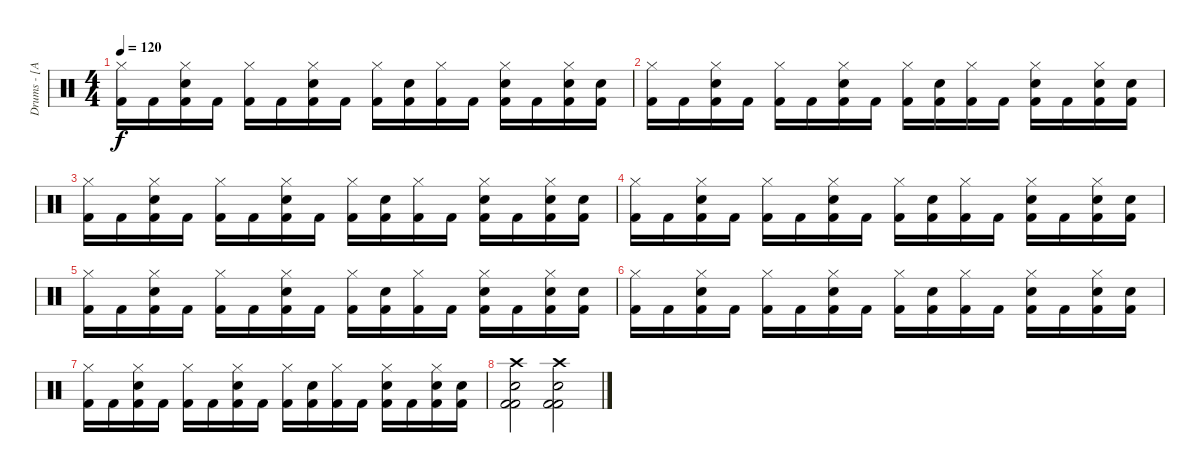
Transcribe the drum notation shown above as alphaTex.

\track ("Drums - [Anders]" "Drums - [A") {instrument percussion}
\staff {score}
\articulation defaults
\ts (4 4)
\tempo 120
\clef neutral
\ks c
("Hi-Hat (closed)" "Kick (hit) 2").16{dy f} "Kick (hit) 2".16 ("Hi-Hat (closed)" "Snare (hit) 2" "Kick (hit) 2").16 "Kick (hit) 2".16 ("Hi-Hat (closed)" "Kick (hit) 2").16 "Kick (hit) 2".16 ("Hi-Hat (closed)" "Snare (hit) 2" "Kick (hit) 2").16 "Kick (hit) 2".16 ("Hi-Hat (closed)" "Kick (hit) 2").16 ("Snare (hit) 2" "Kick (hit) 2").16 ("Hi-Hat (closed)" "Kick (hit) 2").16 "Kick (hit) 2".16 ("Hi-Hat (closed)" "Snare (hit) 2" "Kick (hit) 2").16 "Kick (hit) 2".16 ("Hi-Hat (closed)" "Snare (hit) 2" "Kick (hit) 2").16 ("Snare (hit) 2" "Kick (hit) 2").16 |
("Hi-Hat (closed)" "Kick (hit) 2").16 "Kick (hit) 2".16 ("Hi-Hat (closed)" "Snare (hit) 2" "Kick (hit) 2").16 "Kick (hit) 2".16 ("Hi-Hat (closed)" "Kick (hit) 2").16 "Kick (hit) 2".16 ("Hi-Hat (closed)" "Snare (hit) 2" "Kick (hit) 2").16 "Kick (hit) 2".16 ("Hi-Hat (closed)" "Kick (hit) 2").16 ("Snare (hit) 2" "Kick (hit) 2").16 ("Hi-Hat (closed)" "Kick (hit) 2").16 "Kick (hit) 2".16 ("Hi-Hat (closed)" "Snare (hit) 2" "Kick (hit) 2").16 "Kick (hit) 2".16 ("Hi-Hat (closed)" "Snare (hit) 2" "Kick (hit) 2").16 ("Snare (hit) 2" "Kick (hit) 2").16 |
("Hi-Hat (closed)" "Kick (hit) 2").16 "Kick (hit) 2".16 ("Hi-Hat (closed)" "Snare (hit) 2" "Kick (hit) 2").16 "Kick (hit) 2".16 ("Hi-Hat (closed)" "Kick (hit) 2").16 "Kick (hit) 2".16 ("Hi-Hat (closed)" "Snare (hit) 2" "Kick (hit) 2").16 "Kick (hit) 2".16 ("Hi-Hat (closed)" "Kick (hit) 2").16 ("Snare (hit) 2" "Kick (hit) 2").16 ("Hi-Hat (closed)" "Kick (hit) 2").16 "Kick (hit) 2".16 ("Hi-Hat (closed)" "Snare (hit) 2" "Kick (hit) 2").16 "Kick (hit) 2".16 ("Hi-Hat (closed)" "Snare (hit) 2" "Kick (hit) 2").16 ("Snare (hit) 2" "Kick (hit) 2").16 |
("Hi-Hat (closed)" "Kick (hit) 2").16 "Kick (hit) 2".16 ("Hi-Hat (closed)" "Snare (hit) 2" "Kick (hit) 2").16 "Kick (hit) 2".16 ("Hi-Hat (closed)" "Kick (hit) 2").16 "Kick (hit) 2".16 ("Hi-Hat (closed)" "Snare (hit) 2" "Kick (hit) 2").16 "Kick (hit) 2".16 ("Hi-Hat (closed)" "Kick (hit) 2").16 ("Snare (hit) 2" "Kick (hit) 2").16 ("Hi-Hat (closed)" "Kick (hit) 2").16 "Kick (hit) 2".16 ("Hi-Hat (closed)" "Snare (hit) 2" "Kick (hit) 2").16 "Kick (hit) 2".16 ("Hi-Hat (closed)" "Snare (hit) 2" "Kick (hit) 2").16 ("Snare (hit) 2" "Kick (hit) 2").16 |
("Hi-Hat (closed)" "Kick (hit) 2").16 "Kick (hit) 2".16 ("Hi-Hat (closed)" "Snare (hit) 2" "Kick (hit) 2").16 "Kick (hit) 2".16 ("Hi-Hat (closed)" "Kick (hit) 2").16 "Kick (hit) 2".16 ("Hi-Hat (closed)" "Snare (hit) 2" "Kick (hit) 2").16 "Kick (hit) 2".16 ("Hi-Hat (closed)" "Kick (hit) 2").16 ("Snare (hit) 2" "Kick (hit) 2").16 ("Hi-Hat (closed)" "Kick (hit) 2").16 "Kick (hit) 2".16 ("Hi-Hat (closed)" "Snare (hit) 2" "Kick (hit) 2").16 "Kick (hit) 2".16 ("Hi-Hat (closed)" "Snare (hit) 2" "Kick (hit) 2").16 ("Snare (hit) 2" "Kick (hit) 2").16 |
("Hi-Hat (closed)" "Kick (hit) 2").16 "Kick (hit) 2".16 ("Hi-Hat (closed)" "Snare (hit) 2" "Kick (hit) 2").16 "Kick (hit) 2".16 ("Hi-Hat (closed)" "Kick (hit) 2").16 "Kick (hit) 2".16 ("Hi-Hat (closed)" "Snare (hit) 2" "Kick (hit) 2").16 "Kick (hit) 2".16 ("Hi-Hat (closed)" "Kick (hit) 2").16 ("Snare (hit) 2" "Kick (hit) 2").16 ("Hi-Hat (closed)" "Kick (hit) 2").16 "Kick (hit) 2".16 ("Hi-Hat (closed)" "Snare (hit) 2" "Kick (hit) 2").16 "Kick (hit) 2".16 ("Hi-Hat (closed)" "Snare (hit) 2" "Kick (hit) 2").16 ("Snare (hit) 2" "Kick (hit) 2").16 |
("Hi-Hat (closed)" "Kick (hit) 2").16 "Kick (hit) 2".16 ("Hi-Hat (closed)" "Snare (hit) 2" "Kick (hit) 2").16 "Kick (hit) 2".16 ("Hi-Hat (closed)" "Kick (hit) 2").16 "Kick (hit) 2".16 ("Hi-Hat (closed)" "Snare (hit) 2" "Kick (hit) 2").16 "Kick (hit) 2".16 ("Hi-Hat (closed)" "Kick (hit) 2").16 ("Snare (hit) 2" "Kick (hit) 2").16 ("Hi-Hat (closed)" "Kick (hit) 2").16 "Kick (hit) 2".16 ("Hi-Hat (closed)" "Snare (hit) 2" "Kick (hit) 2").16 "Kick (hit) 2".16 ("Hi-Hat (closed)" "Snare (hit) 2" "Kick (hit) 2").16 ("Snare (hit) 2" "Kick (hit) 2").16 |
("Crash high (hit)" "Kick (hit) 2" "Snare (hit) 2" "Kick (hit) 2").2 ("Crash high (hit)" "Kick (hit) 2" "Snare (hit) 2" "Kick (hit) 2").2
